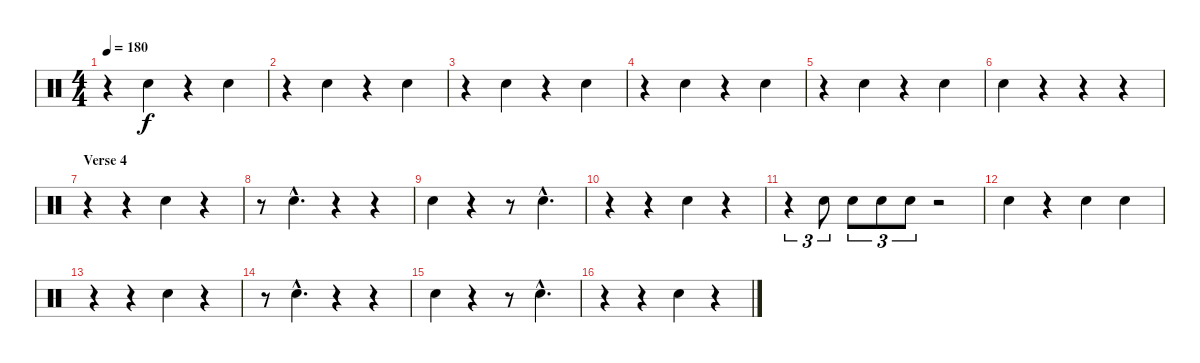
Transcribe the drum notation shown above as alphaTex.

\track "" {instrument percussion}
\staff {score}
\articulation defaults
\ts (4 4)
\tempo 180
\clef neutral
\ks c
r.4{dy f} "Electric Snare (hit)".4 r.4 "Electric Snare (hit)".4 |
r.4 "Electric Snare (hit)".4 r.4 "Electric Snare (hit)".4 |
r.4 "Electric Snare (hit)".4 r.4 "Electric Snare (hit)".4 |
r.4 "Electric Snare (hit)".4 r.4 "Electric Snare (hit)".4 |
r.4 "Electric Snare (hit)".4 r.4 "Electric Snare (hit)".4 |
"Electric Snare (hit)".4 r.4 r.4 r.4 |
\section ("" "Verse 4")
r.4 r.4 "Electric Snare (hit)".4 r.4 |
r.8 "Electric Snare (hit)"{hac}.4{d} r.4 r.4 |
"Electric Snare (hit)".4 r.4 r.8 "Electric Snare (hit)"{hac}.4{d} |
r.4 r.4 "Electric Snare (hit)".4 r.4 |
r.4{tu (3 2)} "Electric Snare (hit)".8{tu (3 2)} "Electric Snare (hit)".8{tu (3 2)} "Electric Snare (hit)".8{tu (3 2)} "Electric Snare (hit)".8{tu (3 2)} r.2 |
"Electric Snare (hit)".4 r.4 "Electric Snare (hit)".4 "Electric Snare (hit)".4 |
r.4 r.4 "Electric Snare (hit)".4 r.4 |
r.8 "Electric Snare (hit)"{hac}.4{d} r.4 r.4 |
"Electric Snare (hit)".4 r.4 r.8 "Electric Snare (hit)"{hac}.4{d} |
r.4 r.4 "Electric Snare (hit)".4 r.4
